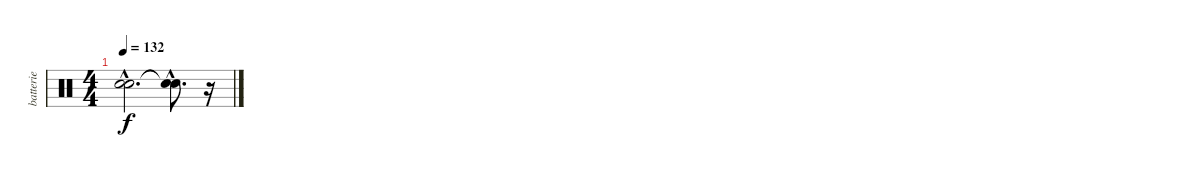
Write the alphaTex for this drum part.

\track ("batterie" "batterie") {instrument percussion}
\staff {score}
\articulation defaults
\ts (4 4)
\tempo 132
\clef neutral
\ks c
("Snare (hit)"{hac t} "Snare (hit)"{hac t}).2{d dy f} ("Snare (hit)"{hac t} "Snare (hit)"{hac t}).8{d} r.16
